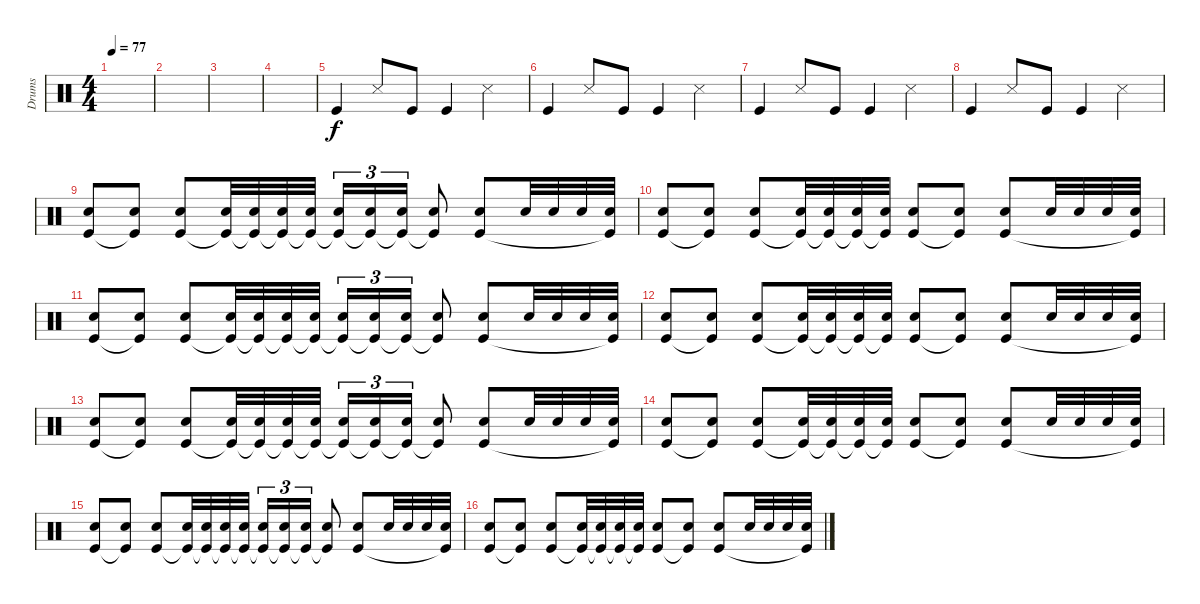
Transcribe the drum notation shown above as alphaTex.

\track ("Drums" "Drums") {instrument percussion}
\staff {score}
\articulation defaults
\ts (4 4)
\tempo 77
\clef neutral
\ks c
|
|
|
|
"Kick (hit)".4 "Snare (side stick) 3".8 "Kick (hit)".8 "Kick (hit)".4 "Snare (side stick) 3".4 |
"Kick (hit)".4 "Snare (side stick) 3".8 "Kick (hit)".8 "Kick (hit)".4 "Snare (side stick) 3".4 |
"Kick (hit)".4 "Snare (side stick) 3".8 "Kick (hit)".8 "Kick (hit)".4 "Snare (side stick) 3".4 |
"Kick (hit)".4 "Snare (side stick) 3".8 "Kick (hit)".8 "Kick (hit)".4 "Snare (side stick) 3".4 |
("Snare (hit) 2" "Kick (hit)").8 ("Snare (hit) 2" "Kick (hit)"{t}).8 ("Snare (hit) 2" "Kick (hit)").8 ("Snare (hit) 2" "Kick (hit)"{t}).32 ("Snare (hit) 2" "Kick (hit)"{t}).32 ("Snare (hit) 2" "Kick (hit)"{t}).32 ("Snare (hit) 2" "Kick (hit)"{t}).32 ("Snare (hit) 2" "Kick (hit)"{t}).16{tu (3 2)} ("Snare (hit) 2" "Kick (hit)"{t}).16{tu (3 2)} ("Snare (hit) 2" "Kick (hit)"{t}).16{tu (3 2)} ("Snare (hit) 2" "Kick (hit)"{t}).8 ("Snare (hit) 2" "Kick (hit)").8 "Snare (hit) 2".32 "Snare (hit) 2".32 "Snare (hit) 2".32 ("Snare (hit) 2" "Kick (hit)"{t}).32 |
("Snare (hit) 2" "Kick (hit)").8 ("Snare (hit) 2" "Kick (hit)"{t}).8 ("Snare (hit) 2" "Kick (hit)").8 ("Snare (hit) 2" "Kick (hit)"{t}).32 ("Snare (hit) 2" "Kick (hit)"{t}).32 ("Snare (hit) 2" "Kick (hit)"{t}).32 ("Snare (hit) 2" "Kick (hit)"{t}).32 ("Snare (hit) 2" "Kick (hit)").8 ("Snare (hit) 2" "Kick (hit)"{t}).8 ("Snare (hit) 2" "Kick (hit)").8 "Snare (hit) 2".32 "Snare (hit) 2".32 "Snare (hit) 2".32 ("Snare (hit) 2" "Kick (hit)"{t}).32 |
("Snare (hit) 2" "Kick (hit)").8 ("Snare (hit) 2" "Kick (hit)"{t}).8 ("Snare (hit) 2" "Kick (hit)").8 ("Snare (hit) 2" "Kick (hit)"{t}).32 ("Snare (hit) 2" "Kick (hit)"{t}).32 ("Snare (hit) 2" "Kick (hit)"{t}).32 ("Snare (hit) 2" "Kick (hit)"{t}).32 ("Snare (hit) 2" "Kick (hit)"{t}).16{tu (3 2)} ("Snare (hit) 2" "Kick (hit)"{t}).16{tu (3 2)} ("Snare (hit) 2" "Kick (hit)"{t}).16{tu (3 2)} ("Snare (hit) 2" "Kick (hit)"{t}).8 ("Snare (hit) 2" "Kick (hit)").8 "Snare (hit) 2".32 "Snare (hit) 2".32 "Snare (hit) 2".32 ("Snare (hit) 2" "Kick (hit)"{t}).32 |
("Snare (hit) 2" "Kick (hit)").8 ("Snare (hit) 2" "Kick (hit)"{t}).8 ("Snare (hit) 2" "Kick (hit)").8 ("Snare (hit) 2" "Kick (hit)"{t}).32 ("Snare (hit) 2" "Kick (hit)"{t}).32 ("Snare (hit) 2" "Kick (hit)"{t}).32 ("Snare (hit) 2" "Kick (hit)"{t}).32 ("Snare (hit) 2" "Kick (hit)").8 ("Snare (hit) 2" "Kick (hit)"{t}).8 ("Snare (hit) 2" "Kick (hit)").8 "Snare (hit) 2".32 "Snare (hit) 2".32 "Snare (hit) 2".32 ("Snare (hit) 2" "Kick (hit)"{t}).32 |
("Snare (hit) 2" "Kick (hit)").8 ("Snare (hit) 2" "Kick (hit)"{t}).8 ("Snare (hit) 2" "Kick (hit)").8 ("Snare (hit) 2" "Kick (hit)"{t}).32 ("Snare (hit) 2" "Kick (hit)"{t}).32 ("Snare (hit) 2" "Kick (hit)"{t}).32 ("Snare (hit) 2" "Kick (hit)"{t}).32 ("Snare (hit) 2" "Kick (hit)"{t}).16{tu (3 2)} ("Snare (hit) 2" "Kick (hit)"{t}).16{tu (3 2)} ("Snare (hit) 2" "Kick (hit)"{t}).16{tu (3 2)} ("Snare (hit) 2" "Kick (hit)"{t}).8 ("Snare (hit) 2" "Kick (hit)").8 "Snare (hit) 2".32 "Snare (hit) 2".32 "Snare (hit) 2".32 ("Snare (hit) 2" "Kick (hit)"{t}).32 |
("Snare (hit) 2" "Kick (hit)").8 ("Snare (hit) 2" "Kick (hit)"{t}).8 ("Snare (hit) 2" "Kick (hit)").8 ("Snare (hit) 2" "Kick (hit)"{t}).32 ("Snare (hit) 2" "Kick (hit)"{t}).32 ("Snare (hit) 2" "Kick (hit)"{t}).32 ("Snare (hit) 2" "Kick (hit)"{t}).32 ("Snare (hit) 2" "Kick (hit)").8 ("Snare (hit) 2" "Kick (hit)"{t}).8 ("Snare (hit) 2" "Kick (hit)").8 "Snare (hit) 2".32 "Snare (hit) 2".32 "Snare (hit) 2".32 ("Snare (hit) 2" "Kick (hit)"{t}).32 |
("Snare (hit) 2" "Kick (hit)").8 ("Snare (hit) 2" "Kick (hit)"{t}).8 ("Snare (hit) 2" "Kick (hit)").8 ("Snare (hit) 2" "Kick (hit)"{t}).32 ("Snare (hit) 2" "Kick (hit)"{t}).32 ("Snare (hit) 2" "Kick (hit)"{t}).32 ("Snare (hit) 2" "Kick (hit)"{t}).32 ("Snare (hit) 2" "Kick (hit)"{t}).16{tu (3 2)} ("Snare (hit) 2" "Kick (hit)"{t}).16{tu (3 2)} ("Snare (hit) 2" "Kick (hit)"{t}).16{tu (3 2)} ("Snare (hit) 2" "Kick (hit)"{t}).8 ("Snare (hit) 2" "Kick (hit)").8 "Snare (hit) 2".32 "Snare (hit) 2".32 "Snare (hit) 2".32 ("Snare (hit) 2" "Kick (hit)"{t}).32 |
("Snare (hit) 2" "Kick (hit)").8 ("Snare (hit) 2" "Kick (hit)"{t}).8 ("Snare (hit) 2" "Kick (hit)").8 ("Snare (hit) 2" "Kick (hit)"{t}).32 ("Snare (hit) 2" "Kick (hit)"{t}).32 ("Snare (hit) 2" "Kick (hit)"{t}).32 ("Snare (hit) 2" "Kick (hit)"{t}).32 ("Snare (hit) 2" "Kick (hit)").8 ("Snare (hit) 2" "Kick (hit)"{t}).8 ("Snare (hit) 2" "Kick (hit)").8 "Snare (hit) 2".32 "Snare (hit) 2".32 "Snare (hit) 2".32 ("Snare (hit) 2" "Kick (hit)"{t}).32
